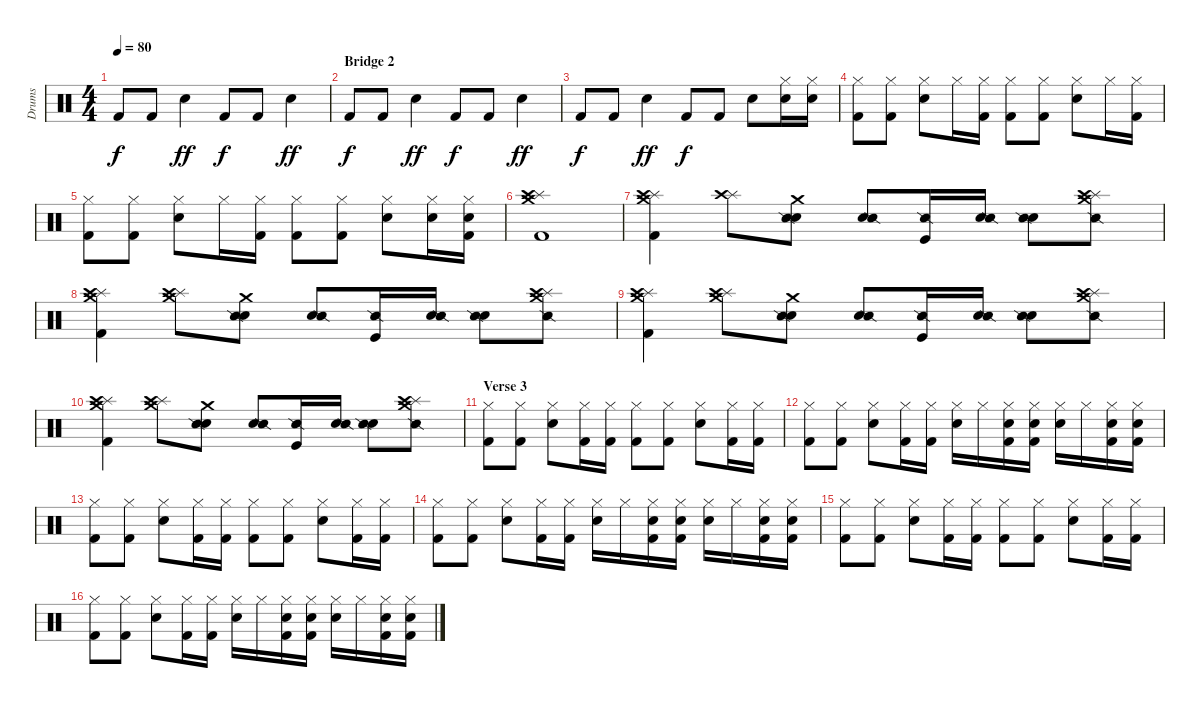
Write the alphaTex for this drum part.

\track ("Drums" "Drums") {instrument percussion}
\staff {score}
\articulation defaults
\ts (4 4)
\tempo 80
\clef neutral
\ks c "Kick (hit) 2".8{dy f} "Kick (hit) 2".8 "Electric Snare (hit)".4{dy ff} "Kick (hit) 2".8{dy f} "Kick (hit) 2".8 "Electric Snare (hit)".4{dy ff}
|
\section ("" "Bridge 2")
"Kick (hit) 2".8{dy f} "Kick (hit) 2".8 "Electric Snare (hit)".4{dy ff} "Kick (hit) 2".8{dy f} "Kick (hit) 2".8 "Electric Snare (hit)".4{dy ff} |
"Kick (hit) 2".8{dy f} "Kick (hit) 2".8 "Electric Snare (hit)".4{dy ff} "Kick (hit) 2".8{dy f} "Kick (hit) 2".8 "Electric Snare (hit)".8 ("Hi-Hat (closed)" "Electric Snare (hit)").16 ("Hi-Hat (closed)" "Electric Snare (hit)").16 |
("Hi-Hat (closed)" "Kick (hit) 2").8 ("Hi-Hat (closed)" "Kick (hit) 2").8 ("Hi-Hat (closed)" "Electric Snare (hit)").8 "Hi-Hat (closed)".16 ("Hi-Hat (closed)" "Kick (hit) 2").16 ("Hi-Hat (closed)" "Kick (hit) 2").8 ("Hi-Hat (closed)" "Kick (hit) 2").8 ("Hi-Hat (closed)" "Electric Snare (hit)").8 "Hi-Hat (closed)".16 ("Hi-Hat (closed)" "Kick (hit) 2").16 |
("Hi-Hat (closed)" "Kick (hit) 2").8 ("Hi-Hat (closed)" "Kick (hit) 2").8 ("Hi-Hat (closed)" "Electric Snare (hit)").8 "Hi-Hat (closed)".16 ("Hi-Hat (closed)" "Kick (hit) 2").16 ("Hi-Hat (closed)" "Kick (hit) 2").8 ("Hi-Hat (closed)" "Kick (hit) 2").8 ("Hi-Hat (closed)" "Electric Snare (hit)").8 ("Hi-Hat (closed)" "Electric Snare (hit)").16 ("Hi-Hat (closed)" "Electric Snare (hit)" "Kick (hit) 2").16 |
("Crash medium (hit)" "Splash (hit)" "Crash high (hit)" "Kick (hit) 2").1 |
("Crash medium (hit)" "Splash (hit)" "Crash high (hit)" "Kick (hit) 2").4 ("Splash (hit)" "Crash high (hit)").8 ("Crash medium (hit)" "Metronome (bell)" "Snare (side stick) 2").8 ("Metronome (bell)" "Snare (side stick) 2").8 ("Kick (hit)" "Snare (side stick) 2").16 ("Metronome (bell)" "Snare (side stick) 2").16 ("Metronome (bell)" "Snare (side stick) 2").8 ("Crash medium (hit)" "Splash (hit)" "Crash high (hit)" "Snare (side stick) 2").8 |
("Crash medium (hit)" "Splash (hit)" "Crash high (hit)" "Kick (hit) 2").4 ("Crash medium (hit)" "Splash (hit)" "Crash high (hit)").8 ("Crash medium (hit)" "Metronome (bell)" "Snare (side stick) 2").8 ("Metronome (bell)" "Snare (side stick) 2").8 ("Kick (hit)" "Snare (side stick) 2").16 ("Metronome (bell)" "Snare (side stick) 2").16 ("Metronome (bell)" "Snare (side stick) 2").8 ("Crash medium (hit)" "Splash (hit)" "Crash high (hit)" "Snare (side stick) 2").8 |
("Crash medium (hit)" "Splash (hit)" "Crash high (hit)" "Kick (hit) 2").4 ("Crash medium (hit)" "Splash (hit)" "Crash high (hit)").8 ("Crash medium (hit)" "Metronome (bell)" "Snare (side stick) 2").8 ("Metronome (bell)" "Snare (side stick) 2").8 ("Kick (hit)" "Snare (side stick) 2").16 ("Metronome (bell)" "Snare (side stick) 2").16 ("Metronome (bell)" "Snare (side stick) 2").8 ("Crash medium (hit)" "Splash (hit)" "Crash high (hit)" "Snare (side stick) 2").8 |
("Crash medium (hit)" "Splash (hit)" "Crash high (hit)" "Kick (hit) 2").4 ("Crash medium (hit)" "Splash (hit)" "Crash high (hit)").8 ("Crash medium (hit)" "Metronome (bell)" "Snare (side stick) 2").8 ("Metronome (bell)" "Snare (side stick) 2").8 ("Kick (hit)" "Snare (side stick) 2").16 ("Metronome (bell)" "Snare (side stick) 2").16 ("Metronome (bell)" "Snare (side stick) 2").8 ("Crash medium (hit)" "Splash (hit)" "Crash high (hit)" "Snare (side stick) 2").8 |
\section ("" "Verse 3")
("Hi-Hat (closed)" "Kick (hit) 2").8 ("Hi-Hat (closed)" "Kick (hit) 2").8 ("Hi-Hat (closed)" "Electric Snare (hit)").8 ("Hi-Hat (closed)" "Kick (hit) 2").16 ("Hi-Hat (closed)" "Kick (hit) 2").16 ("Hi-Hat (closed)" "Kick (hit) 2").8 ("Hi-Hat (closed)" "Kick (hit) 2").8 ("Hi-Hat (closed)" "Electric Snare (hit)").8 ("Hi-Hat (closed)" "Kick (hit) 2").16 ("Hi-Hat (closed)" "Kick (hit) 2").16 |
("Hi-Hat (closed)" "Kick (hit) 2").8 ("Hi-Hat (closed)" "Kick (hit) 2").8 ("Hi-Hat (closed)" "Electric Snare (hit)").8 ("Hi-Hat (closed)" "Kick (hit) 2").16 ("Hi-Hat (closed)" "Kick (hit) 2").16 ("Hi-Hat (closed)" "Electric Snare (hit)").16 "Hi-Hat (closed)".16 ("Hi-Hat (closed)" "Electric Snare (hit)" "Kick (hit) 2").16 ("Hi-Hat (closed)" "Electric Snare (hit)" "Kick (hit) 2").16 ("Hi-Hat (closed)" "Electric Snare (hit)").16 "Hi-Hat (closed)".16 ("Hi-Hat (closed)" "Electric Snare (hit)" "Kick (hit) 2").16 ("Hi-Hat (closed)" "Electric Snare (hit)" "Kick (hit) 2").16 |
("Hi-Hat (closed)" "Kick (hit) 2").8 ("Hi-Hat (closed)" "Kick (hit) 2").8 ("Hi-Hat (closed)" "Electric Snare (hit)").8 ("Hi-Hat (closed)" "Kick (hit) 2").16 ("Hi-Hat (closed)" "Kick (hit) 2").16 ("Hi-Hat (closed)" "Kick (hit) 2").8 ("Hi-Hat (closed)" "Kick (hit) 2").8 ("Hi-Hat (closed)" "Electric Snare (hit)").8 ("Hi-Hat (closed)" "Kick (hit) 2").16 ("Hi-Hat (closed)" "Kick (hit) 2").16 |
("Hi-Hat (closed)" "Kick (hit) 2").8 ("Hi-Hat (closed)" "Kick (hit) 2").8 ("Hi-Hat (closed)" "Electric Snare (hit)").8 ("Hi-Hat (closed)" "Kick (hit) 2").16 ("Hi-Hat (closed)" "Kick (hit) 2").16 ("Hi-Hat (closed)" "Electric Snare (hit)").16 "Hi-Hat (closed)".16 ("Hi-Hat (closed)" "Electric Snare (hit)" "Kick (hit) 2").16 ("Hi-Hat (closed)" "Electric Snare (hit)" "Kick (hit) 2").16 ("Hi-Hat (closed)" "Electric Snare (hit)").16 "Hi-Hat (closed)".16 ("Hi-Hat (closed)" "Electric Snare (hit)" "Kick (hit) 2").16 ("Hi-Hat (closed)" "Electric Snare (hit)" "Kick (hit) 2").16 |
("Hi-Hat (closed)" "Kick (hit) 2").8 ("Hi-Hat (closed)" "Kick (hit) 2").8 ("Hi-Hat (closed)" "Electric Snare (hit)").8 ("Hi-Hat (closed)" "Kick (hit) 2").16 ("Hi-Hat (closed)" "Kick (hit) 2").16 ("Hi-Hat (closed)" "Kick (hit) 2").8 ("Hi-Hat (closed)" "Kick (hit) 2").8 ("Hi-Hat (closed)" "Electric Snare (hit)").8 ("Hi-Hat (closed)" "Kick (hit) 2").16 ("Hi-Hat (closed)" "Kick (hit) 2").16 |
("Hi-Hat (closed)" "Kick (hit) 2").8 ("Hi-Hat (closed)" "Kick (hit) 2").8 ("Hi-Hat (closed)" "Electric Snare (hit)").8 ("Hi-Hat (closed)" "Kick (hit) 2").16 ("Hi-Hat (closed)" "Kick (hit) 2").16 ("Hi-Hat (closed)" "Electric Snare (hit)").16 "Hi-Hat (closed)".16 ("Hi-Hat (closed)" "Electric Snare (hit)" "Kick (hit) 2").16 ("Hi-Hat (closed)" "Electric Snare (hit)" "Kick (hit) 2").16 ("Hi-Hat (closed)" "Electric Snare (hit)").16 "Hi-Hat (closed)".16 ("Hi-Hat (closed)" "Electric Snare (hit)" "Kick (hit) 2").16 ("Hi-Hat (closed)" "Electric Snare (hit)" "Kick (hit) 2").16
